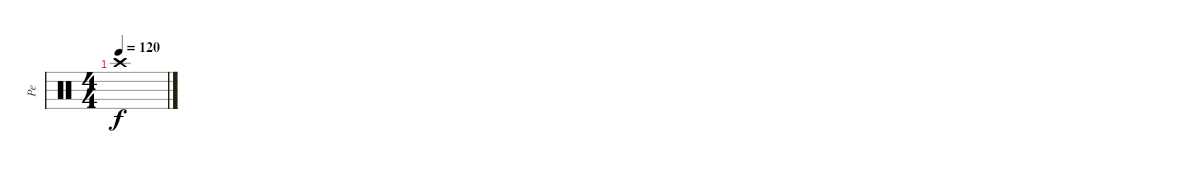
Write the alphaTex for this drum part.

\track ("Pe" "Pe") {instrument percussion}
\staff {score}
\articulation defaults
\ts (4 4)
\tempo 120
\clef neutral
\ks c "Crash high (hit)".1{dy f}
